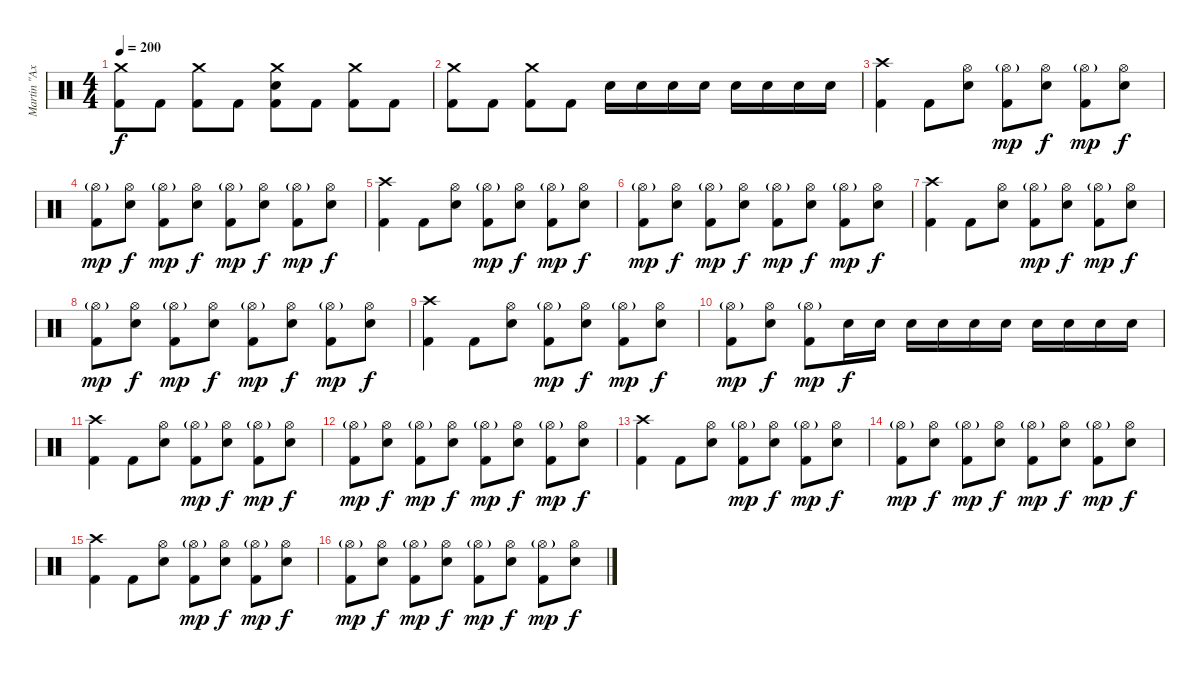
\track ("Martin \"Axe\" Axenrot" "Martin \"Ax") {instrument percussion}
\staff {score}
\articulation defaults
\ts (4 4)
\tempo 200
\clef neutral
\ks c
("Crash medium (hit)" "Kick (hit) 2").8{dy f} "Kick (hit) 2".8 ("Crash medium (hit)" "Kick (hit) 2").8 "Kick (hit) 2".8 ("Crash medium (hit)" "Electric Snare (hit)" "Kick (hit) 2").8 "Kick (hit) 2".8 ("Crash medium (hit)" "Kick (hit) 2").8 "Kick (hit) 2".8 |
("Crash medium (hit)" "Kick (hit) 2").8 "Kick (hit) 2".8 ("Crash medium (hit)" "Kick (hit) 2").8 "Kick (hit) 2".8 "Electric Snare (hit)".16 "Electric Snare (hit)".16 "Electric Snare (hit)".16 "Electric Snare (hit)".16 "Electric Snare (hit)".16 "Electric Snare (hit)".16 "Electric Snare (hit)".16 "Electric Snare (hit)".16 |
("Crash high (hit)" "Kick (hit) 2").4 "Kick (hit) 2".8 ("Hi-Hat (open)" "Electric Snare (hit)").8 ("Hi-Hat (open)"{g} "Kick (hit) 2").8{dy mp} ("Hi-Hat (open)" "Electric Snare (hit)").8{dy f} ("Hi-Hat (open)"{g} "Kick (hit) 2").8{dy mp} ("Hi-Hat (open)" "Electric Snare (hit)").8{dy f} |
("Hi-Hat (open)"{g} "Kick (hit) 2").8{dy mp} ("Hi-Hat (open)" "Electric Snare (hit)").8{dy f} ("Hi-Hat (open)"{g} "Kick (hit) 2").8{dy mp} ("Hi-Hat (open)" "Electric Snare (hit)").8{dy f} ("Hi-Hat (open)"{g} "Kick (hit) 2").8{dy mp} ("Hi-Hat (open)" "Electric Snare (hit)").8{dy f} ("Hi-Hat (open)"{g} "Kick (hit) 2").8{dy mp} ("Hi-Hat (open)" "Electric Snare (hit)").8{dy f} |
("Crash high (hit)" "Kick (hit) 2").4 "Kick (hit) 2".8 ("Hi-Hat (open)" "Electric Snare (hit)").8 ("Hi-Hat (open)"{g} "Kick (hit) 2").8{dy mp} ("Hi-Hat (open)" "Electric Snare (hit)").8{dy f} ("Hi-Hat (open)"{g} "Kick (hit) 2").8{dy mp} ("Hi-Hat (open)" "Electric Snare (hit)").8{dy f} |
("Hi-Hat (open)"{g} "Kick (hit) 2").8{dy mp} ("Hi-Hat (open)" "Electric Snare (hit)").8{dy f} ("Hi-Hat (open)"{g} "Kick (hit) 2").8{dy mp} ("Hi-Hat (open)" "Electric Snare (hit)").8{dy f} ("Hi-Hat (open)"{g} "Kick (hit) 2").8{dy mp} ("Hi-Hat (open)" "Electric Snare (hit)").8{dy f} ("Hi-Hat (open)"{g} "Kick (hit) 2").8{dy mp} ("Hi-Hat (open)" "Electric Snare (hit)").8{dy f} |
("Crash high (hit)" "Kick (hit) 2").4 "Kick (hit) 2".8 ("Hi-Hat (open)" "Electric Snare (hit)").8 ("Hi-Hat (open)"{g} "Kick (hit) 2").8{dy mp} ("Hi-Hat (open)" "Electric Snare (hit)").8{dy f} ("Hi-Hat (open)"{g} "Kick (hit) 2").8{dy mp} ("Hi-Hat (open)" "Electric Snare (hit)").8{dy f} |
("Hi-Hat (open)"{g} "Kick (hit) 2").8{dy mp} ("Hi-Hat (open)" "Electric Snare (hit)").8{dy f} ("Hi-Hat (open)"{g} "Kick (hit) 2").8{dy mp} ("Hi-Hat (open)" "Electric Snare (hit)").8{dy f} ("Hi-Hat (open)"{g} "Kick (hit) 2").8{dy mp} ("Hi-Hat (open)" "Electric Snare (hit)").8{dy f} ("Hi-Hat (open)"{g} "Kick (hit) 2").8{dy mp} ("Hi-Hat (open)" "Electric Snare (hit)").8{dy f} |
("Crash high (hit)" "Kick (hit) 2").4 "Kick (hit) 2".8 ("Hi-Hat (open)" "Electric Snare (hit)").8 ("Hi-Hat (open)"{g} "Kick (hit) 2").8{dy mp} ("Hi-Hat (open)" "Electric Snare (hit)").8{dy f} ("Hi-Hat (open)"{g} "Kick (hit) 2").8{dy mp} ("Hi-Hat (open)" "Electric Snare (hit)").8{dy f} |
("Hi-Hat (open)"{g} "Kick (hit) 2").8{dy mp} ("Hi-Hat (open)" "Electric Snare (hit)").8{dy f} ("Hi-Hat (open)"{g} "Kick (hit) 2").8{dy mp} "Electric Snare (hit)".16{dy f} "Electric Snare (hit)".16 "Electric Snare (hit)".16 "Electric Snare (hit)".16 "Electric Snare (hit)".16 "Electric Snare (hit)".16 "Electric Snare (hit)".16 "Electric Snare (hit)".16 "Electric Snare (hit)".16 "Electric Snare (hit)".16 |
("Crash high (hit)" "Kick (hit) 2").4 "Kick (hit) 2".8 ("Hi-Hat (open)" "Electric Snare (hit)").8 ("Hi-Hat (open)"{g} "Kick (hit) 2").8{dy mp} ("Hi-Hat (open)" "Electric Snare (hit)").8{dy f} ("Hi-Hat (open)"{g} "Kick (hit) 2").8{dy mp} ("Hi-Hat (open)" "Electric Snare (hit)").8{dy f} |
("Hi-Hat (open)"{g} "Kick (hit) 2").8{dy mp} ("Hi-Hat (open)" "Electric Snare (hit)").8{dy f} ("Hi-Hat (open)"{g} "Kick (hit) 2").8{dy mp} ("Hi-Hat (open)" "Electric Snare (hit)").8{dy f} ("Hi-Hat (open)"{g} "Kick (hit) 2").8{dy mp} ("Hi-Hat (open)" "Electric Snare (hit)").8{dy f} ("Hi-Hat (open)"{g} "Kick (hit) 2").8{dy mp} ("Hi-Hat (open)" "Electric Snare (hit)").8{dy f} |
("Crash high (hit)" "Kick (hit) 2").4 "Kick (hit) 2".8 ("Hi-Hat (open)" "Electric Snare (hit)").8 ("Hi-Hat (open)"{g} "Kick (hit) 2").8{dy mp} ("Hi-Hat (open)" "Electric Snare (hit)").8{dy f} ("Hi-Hat (open)"{g} "Kick (hit) 2").8{dy mp} ("Hi-Hat (open)" "Electric Snare (hit)").8{dy f} |
("Hi-Hat (open)"{g} "Kick (hit) 2").8{dy mp} ("Hi-Hat (open)" "Electric Snare (hit)").8{dy f} ("Hi-Hat (open)"{g} "Kick (hit) 2").8{dy mp} ("Hi-Hat (open)" "Electric Snare (hit)").8{dy f} ("Hi-Hat (open)"{g} "Kick (hit) 2").8{dy mp} ("Hi-Hat (open)" "Electric Snare (hit)").8{dy f} ("Hi-Hat (open)"{g} "Kick (hit) 2").8{dy mp} ("Hi-Hat (open)" "Electric Snare (hit)").8{dy f} |
("Crash high (hit)" "Kick (hit) 2").4 "Kick (hit) 2".8 ("Hi-Hat (open)" "Electric Snare (hit)").8 ("Hi-Hat (open)"{g} "Kick (hit) 2").8{dy mp} ("Hi-Hat (open)" "Electric Snare (hit)").8{dy f} ("Hi-Hat (open)"{g} "Kick (hit) 2").8{dy mp} ("Hi-Hat (open)" "Electric Snare (hit)").8{dy f} |
("Hi-Hat (open)"{g} "Kick (hit) 2").8{dy mp} ("Hi-Hat (open)" "Electric Snare (hit)").8{dy f} ("Hi-Hat (open)"{g} "Kick (hit) 2").8{dy mp} ("Hi-Hat (open)" "Electric Snare (hit)").8{dy f} ("Hi-Hat (open)"{g} "Kick (hit) 2").8{dy mp} ("Hi-Hat (open)" "Electric Snare (hit)").8{dy f} ("Hi-Hat (open)"{g} "Kick (hit) 2").8{dy mp} ("Hi-Hat (open)" "Electric Snare (hit)").8{dy f}
